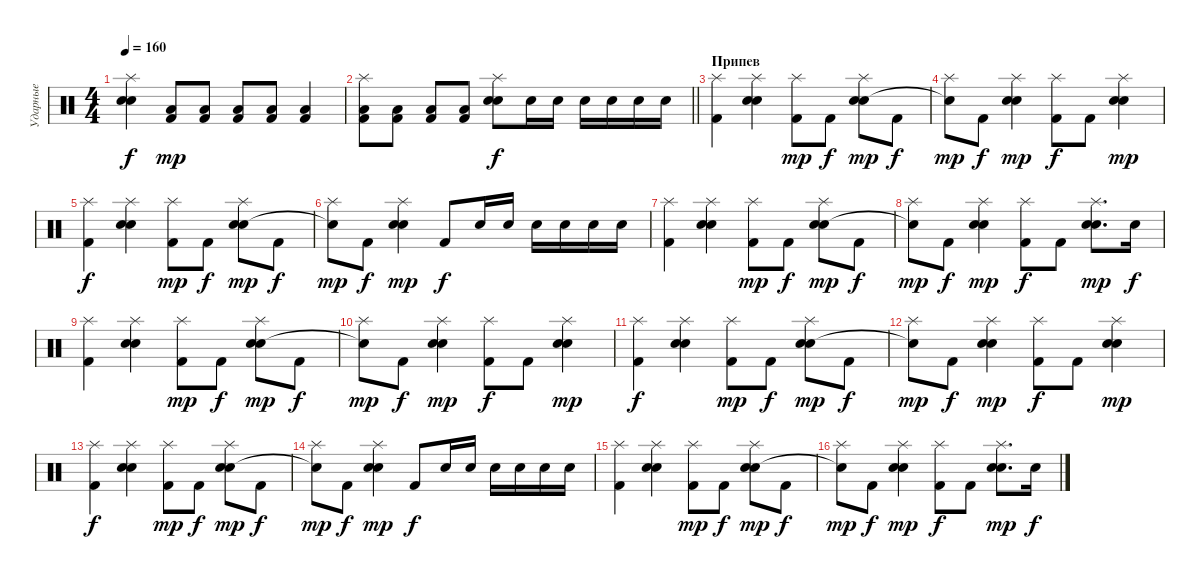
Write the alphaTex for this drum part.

\track ("Ударные" "Ударные") {instrument percussion}
\staff {score}
\articulation defaults
\ts (4 4)
\tempo 160
\clef neutral
\ks c
("Splash (hit)" "Electric Snare (hit)" "Snare (hit) 2").4{dy f} ("Low Tom (hit)" "Kick (hit) 2").8{dy mp} ("Low Tom (hit)" "Kick (hit) 2").8 ("Low Tom (hit)" "Kick (hit) 2").8 ("Low Tom (hit)" "Kick (hit) 2").8 ("Low Tom (hit)" "Kick (hit) 2").4 |
\barLineRight lightlight
("Splash (hit)" "Low Tom (hit)" "Kick (hit) 2").8 ("Low Tom (hit)" "Kick (hit) 2").8 ("Low Tom (hit)" "Kick (hit) 2").8 ("Low Tom (hit)" "Kick (hit) 2").8 ("Splash (hit)" "Electric Snare (hit)" "Snare (hit) 2").8{dy f} "Electric Snare (hit)".16 "Electric Snare (hit)".16 "Electric Snare (hit)".16 "Electric Snare (hit)".16 "Electric Snare (hit)".16 "Electric Snare (hit)".16 |
\section ("" "Припев")
("Splash (hit)" "Kick (hit) 2").4 ("Splash (hit)" "Electric Snare (hit)" "Snare (hit) 2").4 ("Splash (hit)" "Kick (hit) 2").8{dy mp} "Kick (hit) 2".8{dy f} ("Splash (hit)" "Electric Snare (hit)" "Snare (hit) 2").8{dy mp} "Kick (hit) 2".8{dy f} |
("Splash (hit)" "Snare (hit)"{t}).8{dy mp} "Kick (hit) 2".8{dy f} ("Splash (hit)" "Electric Snare (hit)" "Snare (hit) 2").4{dy mp} ("Splash (hit)" "Kick (hit) 2").8{dy f} "Kick (hit) 2".8 ("Splash (hit)" "Electric Snare (hit)" "Snare (hit) 2").4{dy mp} |
("Splash (hit)" "Kick (hit) 2").4{dy f} ("Splash (hit)" "Electric Snare (hit)" "Snare (hit) 2").4 ("Splash (hit)" "Kick (hit) 2").8{dy mp} "Kick (hit) 2".8{dy f} ("Splash (hit)" "Electric Snare (hit)" "Snare (hit) 2").8{dy mp} "Kick (hit) 2".8{dy f} |
("Splash (hit)" "Snare (hit)"{t}).8{dy mp} "Kick (hit) 2".8{dy f} ("Splash (hit)" "Electric Snare (hit)" "Snare (hit) 2").4{dy mp} "Kick (hit) 2".8{dy f} "Electric Snare (hit)".16 "Electric Snare (hit)".16 "Electric Snare (hit)".16 "Electric Snare (hit)".16 "Electric Snare (hit)".16 "Electric Snare (hit)".16 |
("Splash (hit)" "Kick (hit) 2").4 ("Splash (hit)" "Electric Snare (hit)" "Snare (hit) 2").4 ("Splash (hit)" "Kick (hit) 2").8{dy mp} "Kick (hit) 2".8{dy f} ("Splash (hit)" "Electric Snare (hit)" "Snare (hit) 2").8{dy mp} "Kick (hit) 2".8{dy f} |
("Splash (hit)" "Snare (hit)"{t}).8{dy mp} "Kick (hit) 2".8{dy f} ("Splash (hit)" "Electric Snare (hit)" "Snare (hit) 2").4{dy mp} ("Splash (hit)" "Kick (hit) 2").8{dy f} "Kick (hit) 2".8 ("Splash (hit)" "Electric Snare (hit)" "Snare (hit) 2").8{d dy mp} "Electric Snare (hit)".16{dy f} |
("Splash (hit)" "Kick (hit) 2").4 ("Splash (hit)" "Electric Snare (hit)" "Snare (hit) 2").4 ("Splash (hit)" "Kick (hit) 2").8{dy mp} "Kick (hit) 2".8{dy f} ("Splash (hit)" "Electric Snare (hit)" "Snare (hit) 2").8{dy mp} "Kick (hit) 2".8{dy f} |
("Splash (hit)" "Snare (hit)"{t}).8{dy mp} "Kick (hit) 2".8{dy f} ("Splash (hit)" "Electric Snare (hit)" "Snare (hit) 2").4{dy mp} ("Splash (hit)" "Kick (hit) 2").8{dy f} "Kick (hit) 2".8 ("Splash (hit)" "Electric Snare (hit)" "Snare (hit) 2").4{dy mp} |
("Splash (hit)" "Kick (hit) 2").4{dy f} ("Splash (hit)" "Electric Snare (hit)" "Snare (hit) 2").4 ("Splash (hit)" "Kick (hit) 2").8{dy mp} "Kick (hit) 2".8{dy f} ("Splash (hit)" "Electric Snare (hit)" "Snare (hit) 2").8{dy mp} "Kick (hit) 2".8{dy f} |
("Splash (hit)" "Snare (hit)"{t}).8{dy mp} "Kick (hit) 2".8{dy f} ("Splash (hit)" "Electric Snare (hit)" "Snare (hit) 2").4{dy mp} ("Splash (hit)" "Kick (hit) 2").8{dy f} "Kick (hit) 2".8 ("Splash (hit)" "Electric Snare (hit)" "Snare (hit) 2").4{dy mp} |
("Splash (hit)" "Kick (hit) 2").4{dy f} ("Splash (hit)" "Electric Snare (hit)" "Snare (hit) 2").4 ("Splash (hit)" "Kick (hit) 2").8{dy mp} "Kick (hit) 2".8{dy f} ("Splash (hit)" "Electric Snare (hit)" "Snare (hit) 2").8{dy mp} "Kick (hit) 2".8{dy f} |
("Splash (hit)" "Snare (hit)"{t}).8{dy mp} "Kick (hit) 2".8{dy f} ("Splash (hit)" "Electric Snare (hit)" "Snare (hit) 2").4{dy mp} "Kick (hit) 2".8{dy f} "Electric Snare (hit)".16 "Electric Snare (hit)".16 "Electric Snare (hit)".16 "Electric Snare (hit)".16 "Electric Snare (hit)".16 "Electric Snare (hit)".16 |
("Splash (hit)" "Kick (hit) 2").4 ("Splash (hit)" "Electric Snare (hit)" "Snare (hit) 2").4 ("Splash (hit)" "Kick (hit) 2").8{dy mp} "Kick (hit) 2".8{dy f} ("Splash (hit)" "Electric Snare (hit)" "Snare (hit) 2").8{dy mp} "Kick (hit) 2".8{dy f} |
("Splash (hit)" "Snare (hit)"{t}).8{dy mp} "Kick (hit) 2".8{dy f} ("Splash (hit)" "Electric Snare (hit)" "Snare (hit) 2").4{dy mp} ("Splash (hit)" "Kick (hit) 2").8{dy f} "Kick (hit) 2".8 ("Splash (hit)" "Electric Snare (hit)" "Snare (hit) 2").8{d dy mp} "Electric Snare (hit)".16{dy f}
